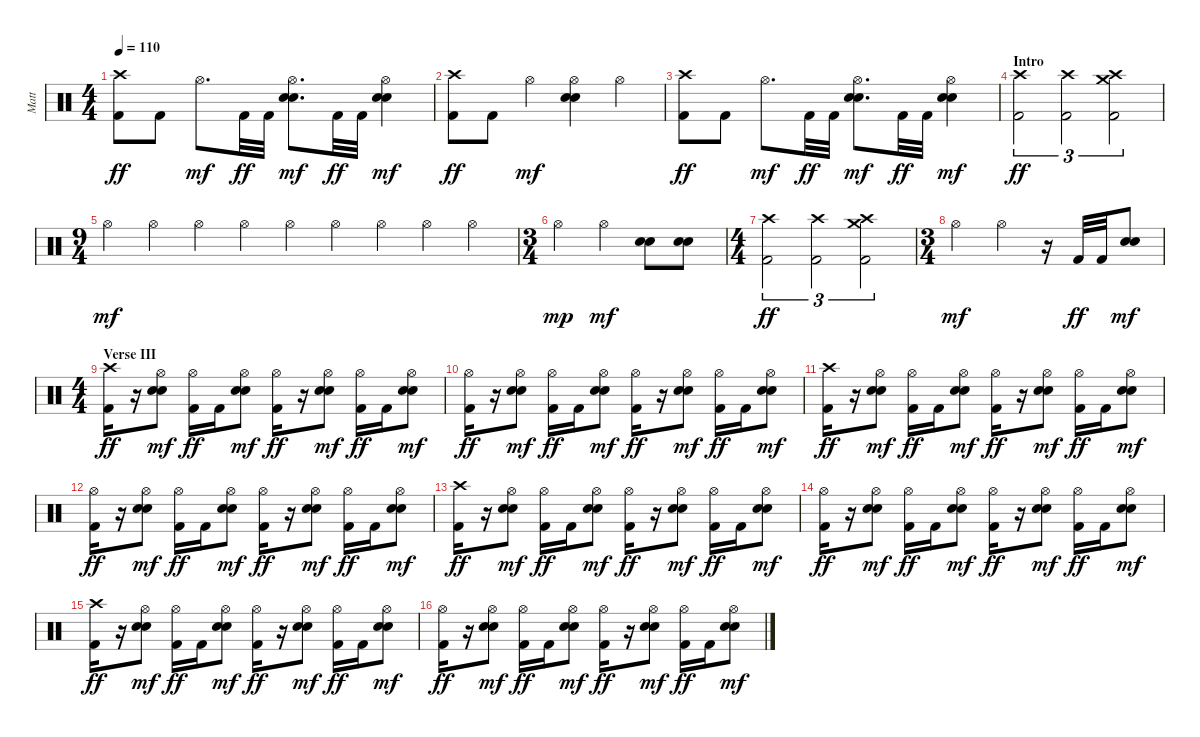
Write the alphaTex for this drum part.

\track ("Matt" "Matt") {instrument percussion}
\staff {score}
\articulation defaults
\ts (4 4)
\tempo 110
\clef neutral
\ks c
("Crash high (hit)" "Kick (hit) 2").8{dy ff} "Kick (hit) 2".8 "Hi-Hat (open)".8{d dy mf} "Kick (hit) 2".32{dy ff} "Kick (hit) 2".32 ("Hi-Hat (open)" "Electric Snare (hit)" "Snare (hit) 2").8{d dy mf} "Kick (hit) 2".32{dy ff} "Kick (hit) 2".32 ("Hi-Hat (open)" "Electric Snare (hit)" "Snare (hit) 2").4{dy mf} |
("Crash high (hit)" "Kick (hit) 2").8{dy ff} "Kick (hit) 2".8 "Hi-Hat (open)".4{dy mf} ("Hi-Hat (open)" "Electric Snare (hit)" "Snare (hit) 2").4 "Hi-Hat (open)".4 |
("Crash high (hit)" "Kick (hit) 2").8{dy ff} "Kick (hit) 2".8 "Hi-Hat (open)".8{d dy mf} "Kick (hit) 2".32{dy ff} "Kick (hit) 2".32 ("Hi-Hat (open)" "Electric Snare (hit)" "Snare (hit) 2").8{d dy mf} "Kick (hit) 2".32{dy ff} "Kick (hit) 2".32 ("Hi-Hat (open)" "Electric Snare (hit)" "Snare (hit) 2").4{dy mf} |
\section ("" "Intro")
("Crash high (hit)" "Kick (hit) 2").2{tu (3 2) dy ff} ("Crash high (hit)" "Kick (hit) 2").2{tu (3 2)} ("Crash medium (hit)" "Crash high (hit)" "Kick (hit) 2").2{tu (3 2)} |
\ts (9 4)
"Hi-Hat (open)".4{dy mf} "Hi-Hat (open)".4 "Hi-Hat (open)".4 "Hi-Hat (open)".4 "Hi-Hat (open)".4 "Hi-Hat (open)".4 "Hi-Hat (open)".4 "Hi-Hat (open)".4 "Hi-Hat (open)".4 |
\ts (3 4)
"Hi-Hat (open)".4{dy mp} "Hi-Hat (open)".4{dy mf} ("Electric Snare (hit)" "Snare (hit) 2").8 ("Electric Snare (hit)" "Snare (hit) 2").8 |
\ts (4 4)
("Crash high (hit)" "Kick (hit) 2").2{tu (3 2) dy ff} ("Crash high (hit)" "Kick (hit) 2").2{tu (3 2)} ("Crash medium (hit)" "Crash high (hit)" "Kick (hit) 2").2{tu (3 2)} |
\ts (3 4)
"Hi-Hat (open)".4{dy mf} "Hi-Hat (open)".4 r.16 "Kick (hit) 2".32{dy ff} "Kick (hit) 2".32 ("Electric Snare (hit)" "Snare (hit) 2").8{dy mf} |
\ts (4 4)
\section ("" "Verse III")
("Crash high (hit)" "Kick (hit) 2").16{dy ff} r.16 ("Hi-Hat (open)" "Electric Snare (hit)" "Snare (hit) 2").8{dy mf} ("Hi-Hat (open)" "Kick (hit) 2").16{dy ff} "Kick (hit) 2".16 ("Hi-Hat (open)" "Electric Snare (hit)" "Snare (hit) 2").8{dy mf} ("Hi-Hat (open)" "Kick (hit) 2").16{dy ff} r.16 ("Hi-Hat (open)" "Electric Snare (hit)" "Snare (hit) 2").8{dy mf} ("Hi-Hat (open)" "Kick (hit) 2").16{dy ff} "Kick (hit) 2".16 ("Hi-Hat (open)" "Electric Snare (hit)" "Snare (hit) 2").8{dy mf} |
("Hi-Hat (open)" "Kick (hit) 2").16{dy ff} r.16 ("Hi-Hat (open)" "Electric Snare (hit)" "Snare (hit) 2").8{dy mf} ("Hi-Hat (open)" "Kick (hit) 2").16{dy ff} "Kick (hit) 2".16 ("Hi-Hat (open)" "Electric Snare (hit)" "Snare (hit) 2").8{dy mf} ("Hi-Hat (open)" "Kick (hit) 2").16{dy ff} r.16 ("Hi-Hat (open)" "Electric Snare (hit)" "Snare (hit) 2").8{dy mf} ("Hi-Hat (open)" "Kick (hit) 2").16{dy ff} "Kick (hit) 2".16 ("Hi-Hat (open)" "Electric Snare (hit)" "Snare (hit) 2").8{dy mf} |
("Crash high (hit)" "Kick (hit) 2").16{dy ff} r.16 ("Hi-Hat (open)" "Electric Snare (hit)" "Snare (hit) 2").8{dy mf} ("Hi-Hat (open)" "Kick (hit) 2").16{dy ff} "Kick (hit) 2".16 ("Hi-Hat (open)" "Electric Snare (hit)" "Snare (hit) 2").8{dy mf} ("Hi-Hat (open)" "Kick (hit) 2").16{dy ff} r.16 ("Hi-Hat (open)" "Electric Snare (hit)" "Snare (hit) 2").8{dy mf} ("Hi-Hat (open)" "Kick (hit) 2").16{dy ff} "Kick (hit) 2".16 ("Hi-Hat (open)" "Electric Snare (hit)" "Snare (hit) 2").8{dy mf} |
("Hi-Hat (open)" "Kick (hit) 2").16{dy ff} r.16 ("Hi-Hat (open)" "Electric Snare (hit)" "Snare (hit) 2").8{dy mf} ("Hi-Hat (open)" "Kick (hit) 2").16{dy ff} "Kick (hit) 2".16 ("Hi-Hat (open)" "Electric Snare (hit)" "Snare (hit) 2").8{dy mf} ("Hi-Hat (open)" "Kick (hit) 2").16{dy ff} r.16 ("Hi-Hat (open)" "Electric Snare (hit)" "Snare (hit) 2").8{dy mf} ("Hi-Hat (open)" "Kick (hit) 2").16{dy ff} "Kick (hit) 2".16 ("Hi-Hat (open)" "Electric Snare (hit)" "Snare (hit) 2").8{dy mf} |
("Crash high (hit)" "Kick (hit) 2").16{dy ff} r.16 ("Hi-Hat (open)" "Electric Snare (hit)" "Snare (hit) 2").8{dy mf} ("Hi-Hat (open)" "Kick (hit) 2").16{dy ff} "Kick (hit) 2".16 ("Hi-Hat (open)" "Electric Snare (hit)" "Snare (hit) 2").8{dy mf} ("Hi-Hat (open)" "Kick (hit) 2").16{dy ff} r.16 ("Hi-Hat (open)" "Electric Snare (hit)" "Snare (hit) 2").8{dy mf} ("Hi-Hat (open)" "Kick (hit) 2").16{dy ff} "Kick (hit) 2".16 ("Hi-Hat (open)" "Electric Snare (hit)" "Snare (hit) 2").8{dy mf} |
("Hi-Hat (open)" "Kick (hit) 2").16{dy ff} r.16 ("Hi-Hat (open)" "Electric Snare (hit)" "Snare (hit) 2").8{dy mf} ("Hi-Hat (open)" "Kick (hit) 2").16{dy ff} "Kick (hit) 2".16 ("Hi-Hat (open)" "Electric Snare (hit)" "Snare (hit) 2").8{dy mf} ("Hi-Hat (open)" "Kick (hit) 2").16{dy ff} r.16 ("Hi-Hat (open)" "Electric Snare (hit)" "Snare (hit) 2").8{dy mf} ("Hi-Hat (open)" "Kick (hit) 2").16{dy ff} "Kick (hit) 2".16 ("Hi-Hat (open)" "Electric Snare (hit)" "Snare (hit) 2").8{dy mf} |
("Crash high (hit)" "Kick (hit) 2").16{dy ff} r.16 ("Hi-Hat (open)" "Electric Snare (hit)" "Snare (hit) 2").8{dy mf} ("Hi-Hat (open)" "Kick (hit) 2").16{dy ff} "Kick (hit) 2".16 ("Hi-Hat (open)" "Electric Snare (hit)" "Snare (hit) 2").8{dy mf} ("Hi-Hat (open)" "Kick (hit) 2").16{dy ff} r.16 ("Hi-Hat (open)" "Electric Snare (hit)" "Snare (hit) 2").8{dy mf} ("Hi-Hat (open)" "Kick (hit) 2").16{dy ff} "Kick (hit) 2".16 ("Hi-Hat (open)" "Electric Snare (hit)" "Snare (hit) 2").8{dy mf} |
("Hi-Hat (open)" "Kick (hit) 2").16{dy ff} r.16 ("Hi-Hat (open)" "Electric Snare (hit)" "Snare (hit) 2").8{dy mf} ("Hi-Hat (open)" "Kick (hit) 2").16{dy ff} "Kick (hit) 2".16 ("Hi-Hat (open)" "Electric Snare (hit)" "Snare (hit) 2").8{dy mf} ("Hi-Hat (open)" "Kick (hit) 2").16{dy ff} r.16 ("Hi-Hat (open)" "Electric Snare (hit)" "Snare (hit) 2").8{dy mf} ("Hi-Hat (open)" "Kick (hit) 2").16{dy ff} "Kick (hit) 2".16 ("Hi-Hat (open)" "Electric Snare (hit)" "Snare (hit) 2").8{dy mf}
